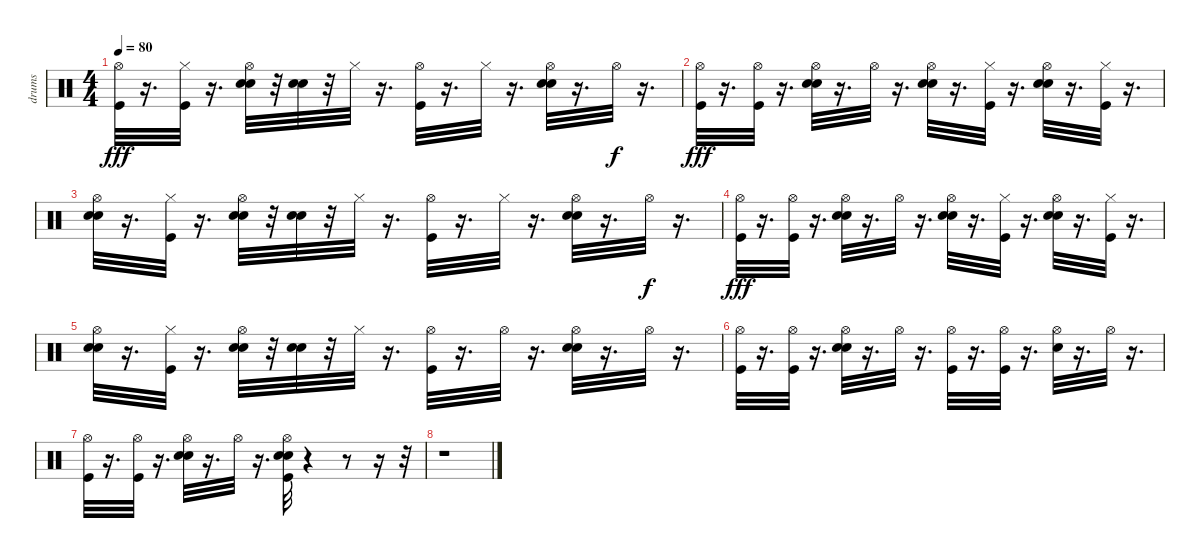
\track ("drums" "drums") {instrument percussion}
\staff {score}
\articulation defaults
\ts (4 4)
\tempo 80
\clef neutral
\ks c
("Hi-Hat (open)" "Kick (hit)").32{dy fff} r.16{d} ("Hi-Hat (closed)" "Kick (hit)").32 r.16{d} ("Hi-Hat (open)" "Snare (hit) 2" "Electric Snare (hit)").32 r.32 ("Electric Snare (hit)" "Snare (hit) 2").32 r.32 "Hi-Hat (closed)".32 r.16{d} ("Hi-Hat (open)" "Kick (hit)").32 r.16{d} "Hi-Hat (closed)".32 r.16{d} ("Snare (hit) 2" "Electric Snare (hit)" "Hi-Hat (open)").32 r.16{d} "Hi-Hat (open)".32{dy f} r.16{d} |
("Kick (hit)" "Hi-Hat (open)").32{dy fff} r.16{d} ("Kick (hit)" "Hi-Hat (open)").32 r.16{d} ("Snare (hit) 2" "Electric Snare (hit)" "Hi-Hat (open)").32 r.16{d} "Hi-Hat (open)".32 r.16{d} ("Hi-Hat (open)" "Snare (hit) 2" "Electric Snare (hit)").32 r.16{d} ("Hi-Hat (closed)" "Kick (hit)").32 r.16{d} ("Snare (hit) 2" "Electric Snare (hit)" "Hi-Hat (open)").32 r.16{d} ("Hi-Hat (closed)" "Kick (hit)").32 r.16{d} |
("Hi-Hat (open)" "Snare (hit) 2" "Electric Snare (hit)").32 r.16{d} ("Hi-Hat (closed)" "Kick (hit)").32 r.16{d} ("Hi-Hat (open)" "Snare (hit) 2" "Electric Snare (hit)").32 r.32 ("Electric Snare (hit)" "Snare (hit) 2").32 r.32 "Hi-Hat (closed)".32 r.16{d} ("Kick (hit)" "Hi-Hat (open)").32 r.16{d} "Hi-Hat (closed)".32 r.16{d} ("Snare (hit) 2" "Electric Snare (hit)" "Hi-Hat (open)").32 r.16{d} "Hi-Hat (open)".32{dy f} r.16{d} |
("Kick (hit)" "Hi-Hat (open)").32{dy fff} r.16{d} ("Kick (hit)" "Hi-Hat (open)").32 r.16{d} ("Snare (hit) 2" "Electric Snare (hit)" "Hi-Hat (open)").32 r.16{d} "Hi-Hat (open)".32 r.16{d} ("Hi-Hat (open)" "Snare (hit) 2" "Electric Snare (hit)").32 r.16{d} ("Hi-Hat (closed)" "Kick (hit)").32 r.16{d} ("Snare (hit) 2" "Electric Snare (hit)" "Hi-Hat (open)").32 r.16{d} ("Hi-Hat (closed)" "Kick (hit)").32 r.16{d} |
("Hi-Hat (open)" "Snare (hit) 2" "Electric Snare (hit)").32 r.16{d} ("Hi-Hat (closed)" "Kick (hit)").32 r.16{d} ("Hi-Hat (open)" "Snare (hit) 2" "Electric Snare (hit)").32 r.32 ("Electric Snare (hit)" "Snare (hit) 2").32 r.32 "Hi-Hat (closed)".32 r.16{d} ("Hi-Hat (open)" "Kick (hit)").32 r.16{d} "Hi-Hat (open)".32 r.16{d} ("Hi-Hat (open)" "Snare (hit) 2" "Electric Snare (hit)").32 r.16{d} "Hi-Hat (open)".32 r.16{d} |
("Hi-Hat (open)" "Kick (hit)").32 r.16{d} ("Hi-Hat (open)" "Kick (hit)").32 r.16{d} ("Hi-Hat (open)" "Snare (hit) 2" "Electric Snare (hit)").32 r.16{d} "Hi-Hat (open)".32 r.16{d} ("Kick (hit)" "Hi-Hat (open)").32 r.16{d} ("Kick (hit)" "Hi-Hat (open)").32 r.16{d} ("Snare (hit) 2" "Hi-Hat (open)").32 r.16{d} "Hi-Hat (open)".32 r.16{d} |
("Kick (hit)" "Hi-Hat (open)").32 r.16{d} ("Kick (hit)" "Hi-Hat (open)").32 r.16{d} ("Snare (hit) 2" "Electric Snare (hit)" "Hi-Hat (open)").32 r.16{d} "Hi-Hat (open)".32 r.16{d} ("Kick (hit)" "Snare (hit) 2" "Electric Snare (hit)" "Hi-Hat (open)").32 r.4 r.8 r.16 r.32 |
r.1
